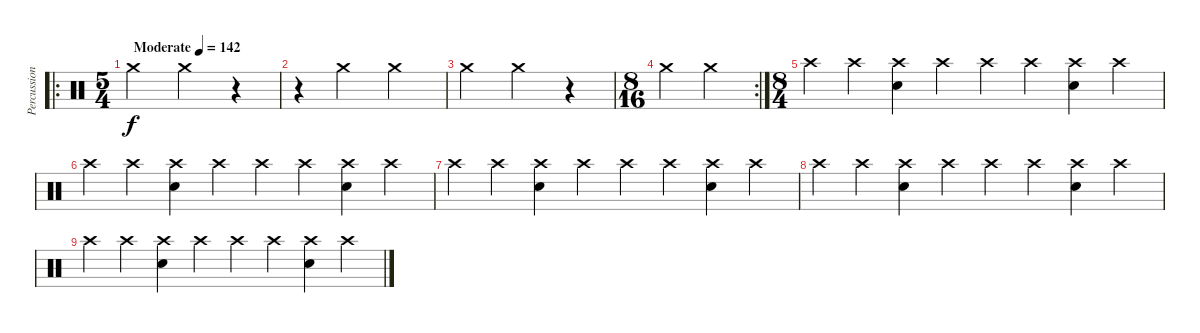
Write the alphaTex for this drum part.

\track ("Percussion" "Percussion") {instrument percussion}
\staff {score}
\articulation defaults
\ro
\ts (5 4)
\tempo (142 "Moderate")
\clef neutral
\ks c "Crash medium (hit)".2{dy f} "Crash medium (hit)".2
r.4 |
r.4 "Crash medium (hit)".2 "Crash medium (hit)".2 |
"Crash medium (hit)".2 "Crash medium (hit)".2 r.4 |
\rc 2
\ts (8 16)
"Crash medium (hit)".4 "Crash medium (hit)".4 |
\ts (8 4)
"Crash high (hit)".4 "Crash high (hit)".4 ("Crash high (hit)" "Snare (hit) 2").4 "Crash high (hit)".4 "Crash high (hit)".4 "Crash high (hit)".4 ("Crash high (hit)" "Electric Snare (hit)").4 "Crash high (hit)".4 |
"Crash high (hit)".4 "Crash high (hit)".4 ("Crash high (hit)" "Snare (hit) 2").4 "Crash high (hit)".4 "Crash high (hit)".4 "Crash high (hit)".4 ("Crash high (hit)" "Electric Snare (hit)").4 "Crash high (hit)".4 |
"Crash high (hit)".4 "Crash high (hit)".4 ("Crash high (hit)" "Snare (hit) 2").4 "Crash high (hit)".4 "Crash high (hit)".4 "Crash high (hit)".4 ("Crash high (hit)" "Electric Snare (hit)").4 "Crash high (hit)".4 |
"Crash high (hit)".4 "Crash high (hit)".4 ("Crash high (hit)" "Snare (hit) 2").4 "Crash high (hit)".4 "Crash high (hit)".4 "Crash high (hit)".4 ("Crash high (hit)" "Electric Snare (hit)").4 "Crash high (hit)".4 |
"Crash high (hit)".4 "Crash high (hit)".4 ("Crash high (hit)" "Snare (hit) 2").4 "Crash high (hit)".4 "Crash high (hit)".4 "Crash high (hit)".4 ("Crash high (hit)" "Electric Snare (hit)").4 "Crash high (hit)".4
